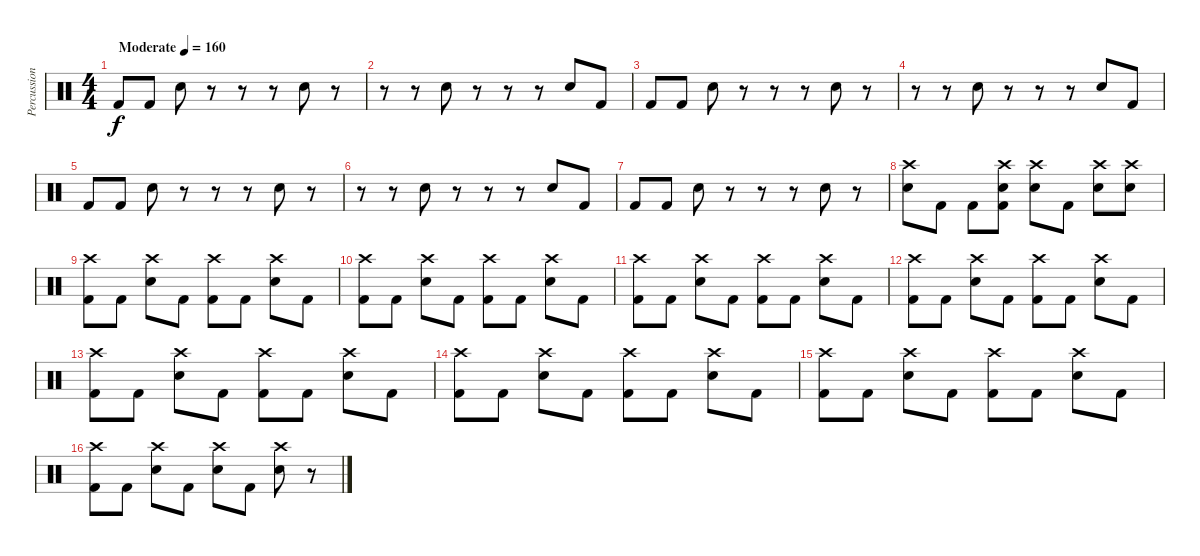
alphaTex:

\track ("Percussion" "Percussion") {instrument percussion}
\staff {score}
\articulation defaults
\ts (4 4)
\tempo (160 "Moderate")
\clef neutral
\ks c "Kick (hit) 2".8{dy f} "Kick (hit) 2".8 "Snare (hit) 2".8
r.8 r.8 r.8 "Snare (hit) 2".8 r.8 |
r.8 r.8 "Snare (hit) 2".8 r.8 r.8 r.8 "Snare (hit) 2".8 "Kick (hit) 2".8 |
"Kick (hit) 2".8 "Kick (hit) 2".8 "Snare (hit) 2".8 r.8 r.8 r.8 "Snare (hit) 2".8 r.8 |
r.8 r.8 "Snare (hit) 2".8 r.8 r.8 r.8 "Snare (hit) 2".8 "Kick (hit) 2".8 |
"Kick (hit) 2".8 "Kick (hit) 2".8 "Snare (hit) 2".8 r.8 r.8 r.8 "Snare (hit) 2".8 r.8 |
r.8 r.8 "Snare (hit) 2".8 r.8 r.8 r.8 "Snare (hit) 2".8 "Kick (hit) 2".8 |
"Kick (hit) 2".8 "Kick (hit) 2".8 "Snare (hit) 2".8 r.8 r.8 r.8 "Snare (hit) 2".8 r.8 |
("Crash high (hit)" "Snare (hit) 2").8 "Kick (hit) 2".8 "Kick (hit) 2".8 ("Crash high (hit)" "Snare (hit) 2" "Kick (hit) 2").8 ("Crash high (hit)" "Snare (hit) 2").8 "Kick (hit) 2".8 ("Crash high (hit)" "Snare (hit) 2").8 ("Crash high (hit)" "Snare (hit) 2").8 |
("Crash high (hit)" "Kick (hit) 2").8 "Kick (hit) 2".8 ("Crash high (hit)" "Snare (hit) 2").8 "Kick (hit) 2".8 ("Crash high (hit)" "Kick (hit) 2").8 "Kick (hit) 2".8 ("Crash high (hit)" "Snare (hit) 2").8 "Kick (hit) 2".8 |
("Crash high (hit)" "Kick (hit) 2").8 "Kick (hit) 2".8 ("Crash high (hit)" "Snare (hit) 2").8 "Kick (hit) 2".8 ("Crash high (hit)" "Kick (hit) 2").8 "Kick (hit) 2".8 ("Crash high (hit)" "Snare (hit) 2").8 "Kick (hit) 2".8 |
("Crash high (hit)" "Kick (hit) 2").8 "Kick (hit) 2".8 ("Crash high (hit)" "Snare (hit) 2").8 "Kick (hit) 2".8 ("Crash high (hit)" "Kick (hit) 2").8 "Kick (hit) 2".8 ("Crash high (hit)" "Snare (hit) 2").8 "Kick (hit) 2".8 |
("Crash high (hit)" "Kick (hit) 2").8 "Kick (hit) 2".8 ("Crash high (hit)" "Snare (hit) 2").8 "Kick (hit) 2".8 ("Crash high (hit)" "Kick (hit) 2").8 "Kick (hit) 2".8 ("Crash high (hit)" "Snare (hit) 2").8 "Kick (hit) 2".8 |
("Crash high (hit)" "Kick (hit) 2").8 "Kick (hit) 2".8 ("Crash high (hit)" "Snare (hit) 2").8 "Kick (hit) 2".8 ("Crash high (hit)" "Kick (hit) 2").8 "Kick (hit) 2".8 ("Crash high (hit)" "Snare (hit) 2").8 "Kick (hit) 2".8 |
("Crash high (hit)" "Kick (hit) 2").8 "Kick (hit) 2".8 ("Crash high (hit)" "Snare (hit) 2").8 "Kick (hit) 2".8 ("Crash high (hit)" "Kick (hit) 2").8 "Kick (hit) 2".8 ("Crash high (hit)" "Snare (hit) 2").8 "Kick (hit) 2".8 |
("Crash high (hit)" "Kick (hit) 2").8 "Kick (hit) 2".8 ("Crash high (hit)" "Snare (hit) 2").8 "Kick (hit) 2".8 ("Crash high (hit)" "Kick (hit) 2").8 "Kick (hit) 2".8 ("Crash high (hit)" "Snare (hit) 2").8 "Kick (hit) 2".8 |
("Crash high (hit)" "Kick (hit) 2").8 "Kick (hit) 2".8 ("Crash high (hit)" "Snare (hit) 2").8 "Kick (hit) 2".8 ("Crash high (hit)" "Snare (hit) 2").8 "Kick (hit) 2".8 ("Crash high (hit)" "Snare (hit) 2").8 r.8
